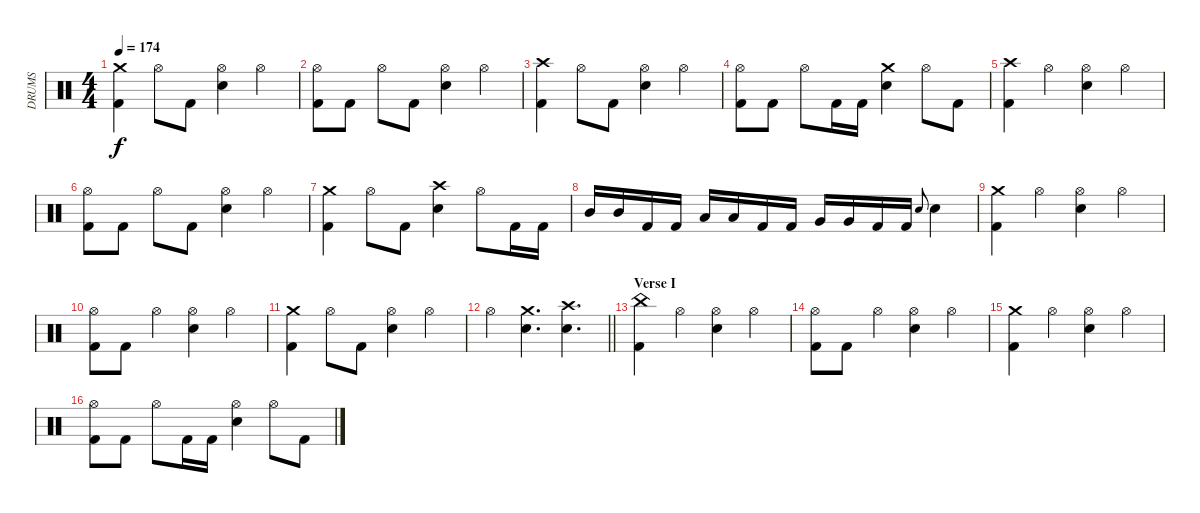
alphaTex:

\track ("DRUMS" "DRUMS") {instrument percussion}
\staff {score}
\articulation defaults
\ts (4 4)
\tempo 174
\clef neutral
\ks c
("Crash medium (hit)" "Kick (hit) 2").4{dy f} "Hi-Hat (open)".8 "Kick (hit) 2".8 ("Hi-Hat (open)" "Snare (hit) 2").4 "Hi-Hat (open)".4 |
("Hi-Hat (open)" "Kick (hit) 2").8 "Kick (hit) 2".8 "Hi-Hat (open)".8 "Kick (hit) 2".8 ("Hi-Hat (open)" "Snare (hit) 2").4 "Hi-Hat (open)".4 |
("Crash high (hit)" "Kick (hit) 2").4 "Hi-Hat (open)".8 "Kick (hit) 2".8 ("Hi-Hat (open)" "Snare (hit) 2").4 "Hi-Hat (open)".4 |
("Hi-Hat (open)" "Kick (hit) 2").8 "Kick (hit) 2".8 "Hi-Hat (open)".8 "Kick (hit) 2".16 "Kick (hit) 2".16 ("Crash medium (hit)" "Snare (hit) 2").4 "Hi-Hat (open)".8 "Kick (hit) 2".8 |
("Crash high (hit)" "Kick (hit) 2").4 "Hi-Hat (open)".4 ("Hi-Hat (open)" "Snare (hit) 2").4 "Hi-Hat (open)".4 |
("Hi-Hat (open)" "Kick (hit) 2").8 "Kick (hit) 2".8 "Hi-Hat (open)".8 "Kick (hit) 2".8 ("Hi-Hat (open)" "Snare (hit) 2").4 "Hi-Hat (open)".4 |
("Crash medium (hit)" "Kick (hit) 2").4 "Hi-Hat (open)".8 "Kick (hit) 2".8 ("Crash high (hit)" "Snare (hit) 2").4 "Hi-Hat (open)".8 "Kick (hit) 2".16 "Kick (hit) 2".16 |
"Mid Tom (hit)".16 "Mid Tom (hit)".16 "Kick (hit) 2".16 "Kick (hit) 2".16 "Low Tom (hit)".16 "Low Tom (hit)".16 "Kick (hit) 2".16 "Kick (hit) 2".16 "Very Low Tom (hit)".16 "Very Low Tom (hit)".16 "Kick (hit) 2".16 "Kick (hit) 2".16 "Snare (hit) 2".8{gr onbeat} "Snare (hit) 2".4 |
("Crash medium (hit)" "Kick (hit) 2").4 "Hi-Hat (open)".4 ("Hi-Hat (open)" "Snare (hit) 2").4 "Hi-Hat (open)".4 |
("Hi-Hat (open)" "Kick (hit) 2").8 "Kick (hit) 2".8 "Hi-Hat (open)".4 ("Hi-Hat (open)" "Snare (hit) 2").4 "Hi-Hat (open)".4 |
("Crash medium (hit)" "Kick (hit) 2").4 "Hi-Hat (open)".8 "Kick (hit) 2".8 ("Hi-Hat (open)" "Snare (hit) 2").4 "Hi-Hat (open)".4 |
\barLineRight lightlight "Hi-Hat (open)".4
("Crash medium (hit)" "Snare (hit) 2").4{d} ("Crash high (hit)" "Snare (hit) 2").4{d} |
\section ("" "Verse I")
("China (hit)" "Kick (hit) 2").4 "Hi-Hat (open)".4 ("Hi-Hat (open)" "Snare (hit) 2").4 "Hi-Hat (open)".4 |
("Hi-Hat (open)" "Kick (hit) 2").8 "Kick (hit) 2".8 "Hi-Hat (open)".4 ("Hi-Hat (open)" "Snare (hit) 2").4 "Hi-Hat (open)".4 |
("Crash medium (hit)" "Kick (hit) 2").4 "Hi-Hat (open)".4 ("Hi-Hat (open)" "Snare (hit) 2").4 "Hi-Hat (open)".4 |
("Hi-Hat (open)" "Kick (hit) 2").8 "Kick (hit) 2".8 "Hi-Hat (open)".8 "Kick (hit) 2".16 "Kick (hit) 2".16 ("Hi-Hat (open)" "Snare (hit) 2").4 "Hi-Hat (open)".8 "Kick (hit) 2".8
